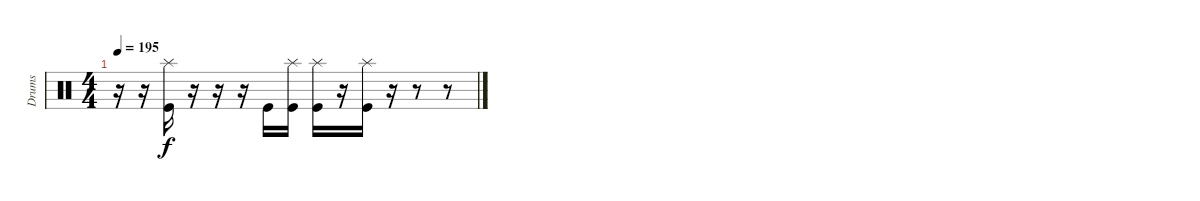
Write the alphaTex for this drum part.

\track ("Drums" "Drums") {instrument percussion}
\staff {score}
\articulation defaults
\ts (4 4)
\tempo 195
\clef neutral
\ks c
r.16{dy f} r.16 ("Splash (hit)" "Kick (hit)").16 r.16 r.16 r.16 "Kick (hit)".16 ("Splash (hit)" "Kick (hit)").16 ("Splash (hit)" "Kick (hit)").16 r.16 ("Splash (hit)" "Kick (hit)").16 r.16 r.8 r.8
